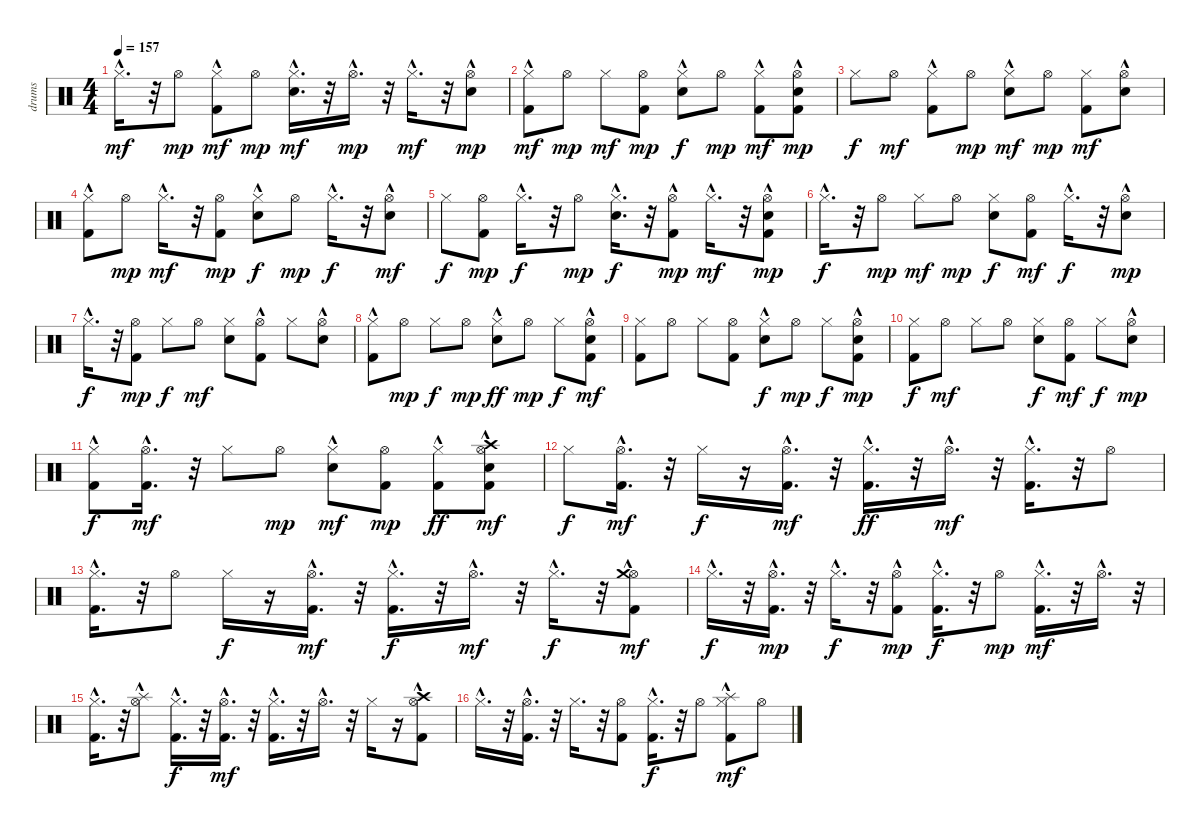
\track ("drums   " "drums   ") {instrument percussion}
\staff {score}
\articulation defaults
\ts (4 4)
\tempo 157
\clef neutral
\ks c "Hi-Hat (closed)"{hac}.16{d dy mf}
r.32 "Hi-Hat (open)".8{dy mp} ("Kick (hit) 2" "Hi-Hat (closed)"{hac}).8{dy mf} "Hi-Hat (open)".8{dy mp} ("Snare (hit) 2"{hac} "Hi-Hat (closed)"{hac}).16{d dy mf} r.32 "Hi-Hat (open)"{hac}.16{d dy mp} r.32 "Hi-Hat (closed)"{hac}.16{d dy mf} r.32 ("Snare (hit) 2"{hac} "Hi-Hat (open)").8{dy mp} |
("Kick (hit) 2" "Hi-Hat (closed)"{hac}).8{dy mf} "Hi-Hat (open)".8{dy mp} "Hi-Hat (closed)".8{dy mf} ("Kick (hit) 2" "Hi-Hat (open)").8{dy mp} ("Snare (hit) 2" "Hi-Hat (closed)"{hac}).8{dy f} "Hi-Hat (open)".8{dy mp} ("Kick (hit) 2"{hac} "Hi-Hat (closed)").8{dy mf} ("Kick (hit) 2" "Snare (hit) 2"{hac} "Hi-Hat (open)").8{dy mp} |
"Hi-Hat (closed)".8{dy f} "Hi-Hat (open)".8{dy mf} ("Kick (hit) 2" "Hi-Hat (closed)"{hac}).8 "Hi-Hat (open)".8{dy mp} ("Snare (hit) 2" "Hi-Hat (closed)"{hac}).8{dy mf} "Hi-Hat (open)".8{dy mp} ("Kick (hit) 2" "Hi-Hat (closed)").8{dy mf} ("Snare (hit) 2"{hac} "Hi-Hat (open)").8 |
("Kick (hit) 2"{hac} "Hi-Hat (closed)"{hac}).8 "Hi-Hat (open)".8{dy mp} "Hi-Hat (closed)"{hac}.16{d dy mf} r.32 ("Kick (hit) 2" "Hi-Hat (open)").8{dy mp} ("Snare (hit) 2" "Hi-Hat (closed)"{hac}).8{dy f} "Hi-Hat (open)".8{dy mp} "Hi-Hat (closed)"{hac}.16{d dy f} r.32 ("Snare (hit) 2"{hac} "Hi-Hat (open)").8{dy mf} |
"Hi-Hat (closed)".8{dy f} ("Kick (hit) 2" "Hi-Hat (open)").8{dy mp} "Hi-Hat (closed)"{hac}.16{d dy f} r.32 "Hi-Hat (open)".8{dy mp} ("Snare (hit) 2"{hac} "Hi-Hat (closed)"{hac}).16{d dy f} r.32 ("Kick (hit) 2"{hac} "Hi-Hat (open)").8{dy mp} "Hi-Hat (closed)"{hac}.16{d dy mf} r.32 ("Kick (hit) 2"{hac} "Snare (hit) 2" "Hi-Hat (open)").8{dy mp} |
"Hi-Hat (closed)"{hac}.16{d dy f} r.32 "Hi-Hat (open)".8{dy mp} "Hi-Hat (closed)".8{dy mf} "Hi-Hat (open)".8{dy mp} ("Snare (hit) 2" "Hi-Hat (closed)").8{dy f} ("Kick (hit) 2" "Hi-Hat (open)").8{dy mf} "Hi-Hat (closed)"{hac}.16{d dy f} r.32 ("Snare (hit) 2"{hac} "Hi-Hat (open)").8{dy mp} |
"Hi-Hat (closed)"{hac}.16{d dy f} r.32 ("Kick (hit) 2" "Hi-Hat (open)").8{dy mp} "Hi-Hat (closed)".8{dy f} "Hi-Hat (open)".8{dy mf} ("Snare (hit) 2" "Hi-Hat (closed)").8 ("Kick (hit) 2"{hac} "Hi-Hat (open)").8 "Hi-Hat (closed)".8 ("Snare (hit) 2"{hac} "Hi-Hat (open)").8 |
("Kick (hit) 2" "Hi-Hat (closed)"{hac}).8 "Hi-Hat (open)".8{dy mp} "Hi-Hat (closed)".8{dy f} "Hi-Hat (open)".8{dy mp} ("Electric Snare (hit)" "Hi-Hat (closed)"{hac}).8{dy ff} "Hi-Hat (open)".8{dy mp} "Hi-Hat (closed)".8{dy f} ("Kick (hit) 2"{hac} "Snare (hit) 2"{hac} "Hi-Hat (open)").8{dy mf} |
("Kick (hit) 2" "Hi-Hat (closed)").8 "Hi-Hat (open)".8 "Hi-Hat (closed)".8 ("Kick (hit) 2" "Hi-Hat (open)").8 ("Snare (hit) 2"{hac} "Hi-Hat (closed)").8{dy f} "Hi-Hat (open)".8{dy mp} "Hi-Hat (closed)".8{dy f} ("Kick (hit) 2" "Snare (hit) 2"{hac} "Hi-Hat (open)").8{dy mp} |
("Kick (hit) 2" "Hi-Hat (closed)").8{dy f} "Hi-Hat (open)".8{dy mf} "Hi-Hat (closed)".8 "Hi-Hat (open)".8 ("Snare (hit) 2" "Hi-Hat (closed)").8{dy f} ("Kick (hit) 2" "Hi-Hat (open)").8{dy mf} "Hi-Hat (closed)".8{dy f} ("Snare (hit) 2"{hac} "Hi-Hat (open)").8{dy mp} |
("Kick (hit) 2"{hac} "Hi-Hat (closed)").8{dy f} ("Kick (hit) 2"{hac} "Hi-Hat (open)"{hac}).16{d dy mf} r.32 "Hi-Hat (closed)".8 "Hi-Hat (open)".8{dy mp} ("Snare (hit) 2" "Hi-Hat (closed)"{hac}).8{dy mf} ("Kick (hit) 2" "Hi-Hat (open)").8{dy mp} ("Kick (hit) 2"{hac} "Hi-Hat (closed)").8{dy ff} ("Kick (hit) 2" "Snare (hit) 2" "Hi-Hat (open)" "Crash high (hit)"{hac}).8{dy mf} |
"Hi-Hat (closed)".8{dy f} ("Kick (hit) 2"{hac} "Hi-Hat (open)"{hac}).16{d dy mf} r.32 "Hi-Hat (closed)".16{dy f} r.16 ("Kick (hit) 2"{hac} "Hi-Hat (open)"{hac}).16{d dy mf} r.32 ("Kick (hit) 2"{hac} "Hi-Hat (closed)").16{d dy ff} r.32 "Hi-Hat (open)"{hac}.16{d dy mf} r.32 ("Kick (hit) 2"{hac} "Hi-Hat (closed)"{hac}).16{d} r.32 "Hi-Hat (open)".8 |
("Kick (hit) 2"{hac} "Hi-Hat (closed)"{hac}).16{d} r.32 "Hi-Hat (open)".8 "Hi-Hat (closed)".16{dy f} r.16 ("Kick (hit) 2"{hac} "Hi-Hat (open)").16{d dy mf} r.32 ("Kick (hit) 2"{hac} "Hi-Hat (closed)").16{d dy f} r.32 "Hi-Hat (open)"{hac}.16{d dy mf} r.32 "Hi-Hat (closed)"{hac}.16{d dy f} r.32 ("Kick (hit) 2"{hac} "Hi-Hat (open)"{hac} "Crash medium (hit)").8{dy mf} |
"Hi-Hat (closed)"{hac}.16{d dy f} r.32 ("Kick (hit) 2"{hac} "Hi-Hat (open)"{hac}).16{d dy mp} r.32 "Hi-Hat (closed)"{hac}.16{d dy f} r.32 ("Kick (hit) 2"{hac} "Hi-Hat (open)").8{dy mp} ("Kick (hit) 2"{hac} "Hi-Hat (closed)"{hac}).16{d dy f} r.32 "Hi-Hat (open)".8{dy mp} ("Kick (hit) 2"{hac} "Hi-Hat (closed)"{hac}).16{d dy mf} r.32 "Hi-Hat (open)"{hac}.16{d} r.32 |
("Kick (hit) 2"{hac} "Hi-Hat (closed)"{hac}).16{d} r.32 ("Hi-Hat (open)"{hac} "Splash (hit)").8 ("Kick (hit) 2"{hac} "Hi-Hat (closed)").16{d dy f} r.32 ("Kick (hit) 2"{hac} "Hi-Hat (open)"{hac}).16{d dy mf} r.32 ("Kick (hit) 2"{hac} "Hi-Hat (closed)").16{d} r.32 "Hi-Hat (open)"{hac}.16{d} r.32 "Hi-Hat (closed)".16 r.16 ("Kick (hit) 2" "Hi-Hat (open)"{hac} "Crash high (hit)").8 |
"Hi-Hat (closed)"{hac}.16{d} r.32 ("Kick (hit) 2"{hac} "Hi-Hat (open)"{hac}).16{d} r.32 "Hi-Hat (closed)".16{d} r.32 ("Kick (hit) 2" "Hi-Hat (open)").8 ("Kick (hit) 2"{hac} "Hi-Hat (closed)"{hac}).16{d dy f} r.32 "Hi-Hat (open)".8 ("Kick (hit) 2"{hac} "Hi-Hat (closed)"{hac} "Splash (hit)").8{dy mf} "Hi-Hat (open)".8
